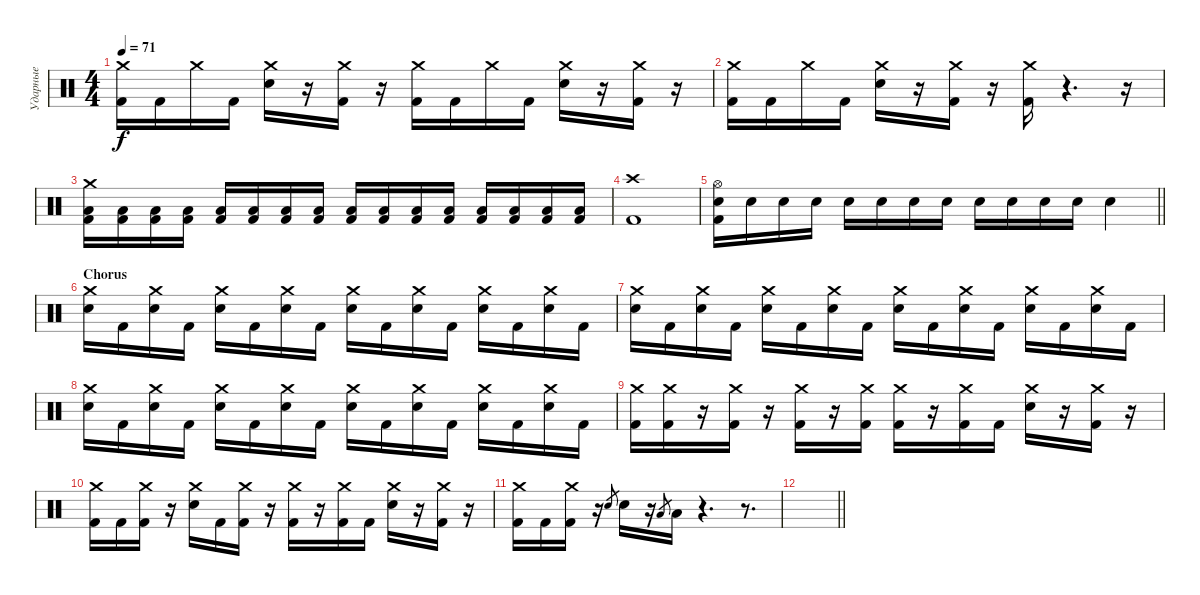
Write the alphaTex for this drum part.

\track ("Ударные" "Ударные") {instrument percussion}
\staff {score}
\articulation defaults
\ts (4 4)
\tempo 71
\clef neutral
\ks c
("Crash medium (hit)" "Kick (hit) 2").16{dy f} "Kick (hit) 2".16 "Crash medium (hit)".16 "Kick (hit) 2".16 ("Crash medium (hit)" "Electric Snare (hit)").16 r.16 ("Crash medium (hit)" "Kick (hit) 2").16 r.16 ("Crash medium (hit)" "Kick (hit) 2").16 "Kick (hit) 2".16 "Crash medium (hit)".16 "Kick (hit) 2".16 ("Crash medium (hit)" "Electric Snare (hit)").16 r.16 ("Crash medium (hit)" "Kick (hit) 2").16 r.16 |
("Crash medium (hit)" "Kick (hit) 2").16 "Kick (hit) 2".16 "Crash medium (hit)".16 "Kick (hit) 2".16 ("Crash medium (hit)" "Electric Snare (hit)").16 r.16 ("Crash medium (hit)" "Kick (hit) 2").16 r.16 ("Crash medium (hit)" "Kick (hit) 2").16 r.4{d} r.16 |
("Crash medium (hit)" "Low Tom (hit)" "Kick (hit) 2").16 ("Low Tom (hit)" "Kick (hit) 2").16 ("Low Tom (hit)" "Kick (hit) 2").16 ("Low Tom (hit)" "Kick (hit) 2").16 ("Low Tom (hit)" "Kick (hit) 2").16 ("Low Tom (hit)" "Kick (hit) 2").16 ("Low Tom (hit)" "Kick (hit) 2").16 ("Low Tom (hit)" "Kick (hit) 2").16 ("Low Tom (hit)" "Kick (hit) 2").16 ("Low Tom (hit)" "Kick (hit) 2").16 ("Low Tom (hit)" "Kick (hit) 2").16 ("Low Tom (hit)" "Kick (hit) 2").16 ("Low Tom (hit)" "Kick (hit) 2").16 ("Low Tom (hit)" "Kick (hit) 2").16 ("Low Tom (hit)" "Kick (hit) 2").16 ("Low Tom (hit)" "Kick (hit) 2").16 |
("Crash high (hit)" "Kick (hit) 2").1 |
\barLineRight lightlight
("Hi-Hat (open)" "Electric Snare (hit)" "Kick (hit) 2").16 "Electric Snare (hit)".16{volume 7} "Electric Snare (hit)".16 "Electric Snare (hit)".16 "Electric Snare (hit)".16{volume 13} "Electric Snare (hit)".16 "Electric Snare (hit)".16 "Electric Snare (hit)".16 "Electric Snare (hit)".16 "Electric Snare (hit)".16 "Electric Snare (hit)".16 "Electric Snare (hit)".16 "Electric Snare (hit)".4 |
\section ("" "Chorus")
("Crash medium (hit)" "Electric Snare (hit)").16 "Kick (hit) 2".16 ("Crash medium (hit)" "Electric Snare (hit)").16 "Kick (hit) 2".16 ("Crash medium (hit)" "Electric Snare (hit)").16 "Kick (hit) 2".16 ("Crash medium (hit)" "Electric Snare (hit)").16 "Kick (hit) 2".16 ("Crash medium (hit)" "Electric Snare (hit)").16 "Kick (hit) 2".16 ("Crash medium (hit)" "Electric Snare (hit)").16 "Kick (hit) 2".16 ("Crash medium (hit)" "Electric Snare (hit)").16 "Kick (hit) 2".16 ("Crash medium (hit)" "Electric Snare (hit)").16 "Kick (hit) 2".16 |
("Crash medium (hit)" "Electric Snare (hit)").16 "Kick (hit) 2".16 ("Crash medium (hit)" "Electric Snare (hit)").16 "Kick (hit) 2".16 ("Crash medium (hit)" "Electric Snare (hit)").16 "Kick (hit) 2".16 ("Crash medium (hit)" "Electric Snare (hit)").16 "Kick (hit) 2".16 ("Crash medium (hit)" "Electric Snare (hit)").16 "Kick (hit) 2".16 ("Crash medium (hit)" "Electric Snare (hit)").16 "Kick (hit) 2".16 ("Crash medium (hit)" "Electric Snare (hit)").16 "Kick (hit) 2".16 ("Crash medium (hit)" "Electric Snare (hit)").16 "Kick (hit) 2".16 |
("Crash medium (hit)" "Electric Snare (hit)").16 "Kick (hit) 2".16 ("Crash medium (hit)" "Electric Snare (hit)").16 "Kick (hit) 2".16 ("Crash medium (hit)" "Electric Snare (hit)").16 "Kick (hit) 2".16 ("Crash medium (hit)" "Electric Snare (hit)").16 "Kick (hit) 2".16 ("Crash medium (hit)" "Electric Snare (hit)").16 "Kick (hit) 2".16 ("Crash medium (hit)" "Electric Snare (hit)").16 "Kick (hit) 2".16 ("Crash medium (hit)" "Electric Snare (hit)").16 "Kick (hit) 2".16 ("Crash medium (hit)" "Electric Snare (hit)").16 "Kick (hit) 2".16 |
("Crash medium (hit)" "Kick (hit) 2").16 ("Crash medium (hit)" "Kick (hit) 2").16 r.16 ("Crash medium (hit)" "Kick (hit) 2").16 r.16 ("Crash medium (hit)" "Kick (hit) 2").16 r.16 ("Crash medium (hit)" "Kick (hit) 2").16 ("Crash medium (hit)" "Kick (hit) 2").16 r.16 ("Crash medium (hit)" "Kick (hit) 2").16 "Kick (hit) 2".16 ("Crash medium (hit)" "Electric Snare (hit)").16 r.16 ("Crash medium (hit)" "Kick (hit) 2").16 r.16 |
("Crash medium (hit)" "Kick (hit) 2").16 "Kick (hit) 2".16 ("Crash medium (hit)" "Kick (hit) 2").16 r.16 ("Crash medium (hit)" "Electric Snare (hit)").16 "Kick (hit) 2".16 ("Crash medium (hit)" "Kick (hit) 2").16 r.16 ("Crash medium (hit)" "Kick (hit) 2").16 r.16 ("Crash medium (hit)" "Kick (hit) 2").16 "Kick (hit) 2".16 ("Crash medium (hit)" "Electric Snare (hit)").16 r.16 ("Crash medium (hit)" "Kick (hit) 2").16 r.16 |
("Crash medium (hit)" "Kick (hit) 2").16 "Kick (hit) 2".16 ("Crash medium (hit)" "Kick (hit) 2").16 r.16 "Electric Snare (hit)".8{gr} "Electric Snare (hit)".16 r.16 "Low Tom (hit)".8{gr} "Low Tom (hit)".16 r.4{d} r.8{d} |
\barLineRight lightlight
